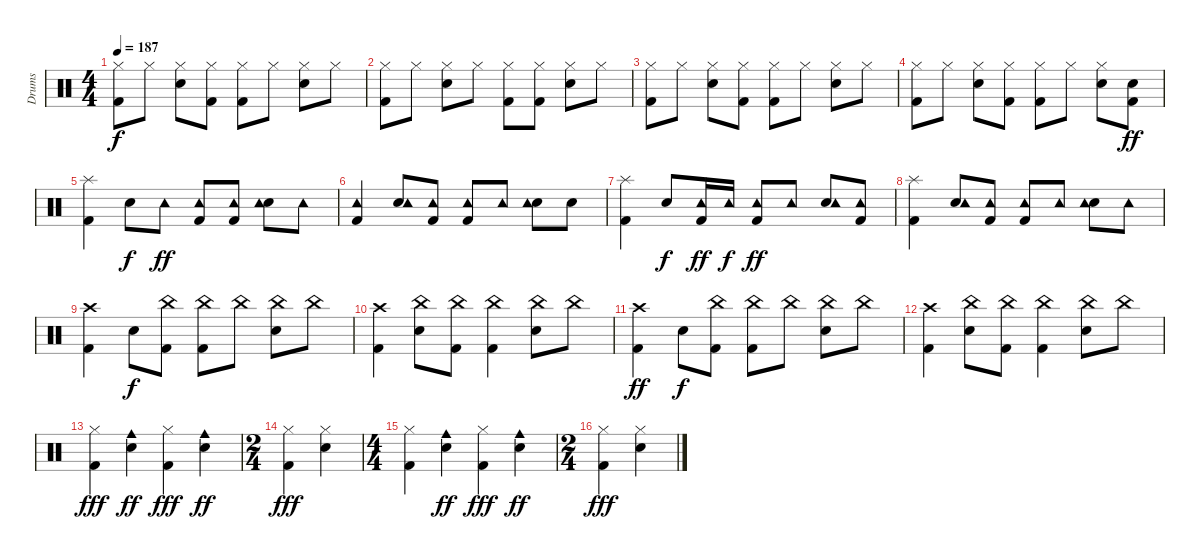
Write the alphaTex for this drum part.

\track ("Drums" "Drums") {instrument percussion}
\staff {score}
\articulation defaults
\ts (4 4)
\tempo 187
\clef neutral
\ks c
("Kick (hit) 2" "Hi-Hat (closed)").8{dy f} "Hi-Hat (closed)".8 ("Snare (hit) 2" "Hi-Hat (closed)").8 ("Kick (hit) 2" "Hi-Hat (closed)").8 ("Kick (hit) 2" "Hi-Hat (closed)").8 "Hi-Hat (closed)".8 ("Snare (hit) 2" "Hi-Hat (closed)").8 "Hi-Hat (closed)".8 |
("Kick (hit) 2" "Hi-Hat (closed)").8 "Hi-Hat (closed)".8 ("Snare (hit) 2" "Hi-Hat (closed)").8 "Hi-Hat (closed)".8 ("Kick (hit) 2" "Hi-Hat (closed)").8 ("Kick (hit) 2" "Hi-Hat (closed)").8 ("Snare (hit) 2" "Hi-Hat (closed)").8 "Hi-Hat (closed)".8 |
("Kick (hit) 2" "Hi-Hat (closed)").8 "Hi-Hat (closed)".8 ("Snare (hit) 2" "Hi-Hat (closed)").8 ("Kick (hit) 2" "Hi-Hat (closed)").8 ("Kick (hit) 2" "Hi-Hat (closed)").8 "Hi-Hat (closed)".8 ("Snare (hit) 2" "Hi-Hat (closed)").8 "Hi-Hat (closed)".8 |
("Kick (hit) 2" "Hi-Hat (closed)").8 "Hi-Hat (closed)".8 ("Snare (hit) 2" "Hi-Hat (closed)").8 ("Kick (hit) 2" "Hi-Hat (closed)").8 ("Kick (hit) 2" "Hi-Hat (closed)").8 "Hi-Hat (closed)".8 ("Snare (hit) 2" "Hi-Hat (closed)").8 ("Kick (hit) 2" "Hand Clap (hit)").8{dy ff} |
("Kick (hit) 2" "Splash (hit)").4 "Snare (hit) 2".8{dy f} "Tambourine (hit)".8{dy ff} ("Kick (hit) 2" "Tambourine (hit)").8 ("Kick (hit) 2" "Tambourine (hit)").8 ("Snare (hit) 2" "Tambourine (hit)").8 "Tambourine (hit)".8 |
("Kick (hit) 2" "Tambourine (hit)").4 ("Snare (hit) 2" "Tambourine (hit)").8 ("Kick (hit) 2" "Tambourine (hit)").8 ("Kick (hit) 2" "Tambourine (hit)").8 "Tambourine (hit)".8 ("Snare (hit) 2" "Tambourine (hit)").8 "Hand Clap (hit)".8 |
("Kick (hit) 2" "Splash (hit)").4 "Snare (hit) 2".8{dy f} ("Kick (hit) 2" "Tambourine (hit)").16{dy ff} "Tambourine (hit)".16{dy f} ("Kick (hit) 2" "Tambourine (hit)").8{dy ff} "Tambourine (hit)".8 ("Snare (hit) 2" "Tambourine (hit)").8 ("Kick (hit) 2" "Tambourine (hit)").8 |
("Kick (hit) 2" "Splash (hit)").4 ("Snare (hit) 2" "Tambourine (hit)").8 ("Kick (hit) 2" "Tambourine (hit)").8 ("Kick (hit) 2" "Tambourine (hit)").8 "Tambourine (hit)".8 ("Snare (hit) 2" "Tambourine (hit)").8 "Tambourine (hit)".8 |
("Kick (hit) 2" "Crash high (hit)").4 "Snare (hit) 2".8{dy f} ("Kick (hit) 2" "China (hit)").8 ("Kick (hit) 2" "China (hit)").8 "China (hit)".8{bd 240} ("Snare (hit) 2" "China (hit)").8 "China (hit)".8{bd 240} |
("Kick (hit) 2" "Crash high (hit)").4 ("Snare (hit) 2" "China (hit)").8 ("Kick (hit) 2" "China (hit)").8{bd 240} ("Kick (hit) 2" "China (hit)").4 ("Snare (hit) 2" "China (hit)").8 "China (hit)".8 |
("Kick (hit) 2" "Crash high (hit)").4{dy ff} "Snare (hit) 2".8{dy f} ("Kick (hit) 2" "China (hit)").8 ("Kick (hit) 2" "China (hit)").8 "China (hit)".8{bd 240} ("Snare (hit) 2" "China (hit)").8 "China (hit)".8{bd 240} |
("Kick (hit) 2" "Crash high (hit)").4 ("Snare (hit) 2" "China (hit)").8 ("Kick (hit) 2" "China (hit)").8{bd 240} ("Kick (hit) 2" "China (hit)").4 ("Snare (hit) 2" "China (hit)").8 "China (hit)".8 |
("Kick (hit) 2" "Hi-Hat (closed)").4{dy fff} ("Snare (hit) 2" "Cowbell medium (hit)").4{dy ff} ("Kick (hit) 2" "Hi-Hat (closed)").4{dy fff} ("Snare (hit) 2" "Cowbell medium (hit)").4{dy ff} |
\ts (2 4)
("Kick (hit) 2" "Hi-Hat (closed)").4{dy fff} ("Snare (hit) 2" "Hi-Hat (closed)").4 |
\ts (4 4)
("Kick (hit) 2" "Hi-Hat (closed)").4 ("Snare (hit) 2" "Cowbell medium (hit)").4{dy ff} ("Kick (hit) 2" "Hi-Hat (closed)").4{dy fff} ("Snare (hit) 2" "Cowbell medium (hit)").4{dy ff} |
\ts (2 4)
("Kick (hit) 2" "Hi-Hat (closed)").4{dy fff} ("Snare (hit) 2" "Hi-Hat (closed)").4
